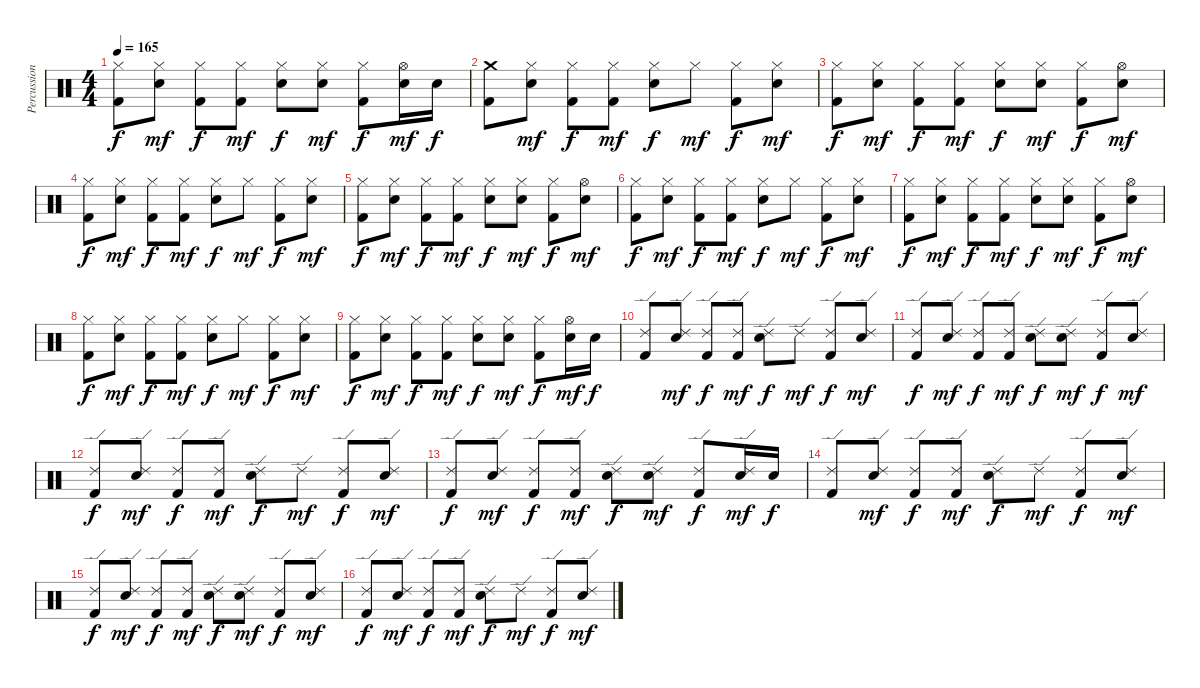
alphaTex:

\track ("Percussion" "Percussion") {instrument percussion}
\staff {score}
\articulation defaults
\ts (4 4)
\tempo 165
\clef neutral
\ks c
("Hi-Hat (closed)" "Kick (hit) 2").8{dy f} ("Hi-Hat (closed)" "Snare (hit) 2").8{dy mf} ("Hi-Hat (closed)" "Kick (hit) 2").8{dy f} ("Hi-Hat (closed)" "Kick (hit) 2").8{dy mf} ("Hi-Hat (closed)" "Snare (hit) 2").8{dy f} ("Hi-Hat (closed)" "Snare (hit) 2").8{dy mf} ("Hi-Hat (closed)" "Kick (hit) 2").8{dy f} ("Hi-Hat (open)" "Snare (hit) 2").16{dy mf} "Snare (hit) 2".16{dy f} |
("Crash medium (hit)" "Kick (hit) 2").8 ("Hi-Hat (closed)" "Snare (hit) 2").8{dy mf} ("Hi-Hat (closed)" "Kick (hit) 2").8{dy f} ("Hi-Hat (closed)" "Kick (hit) 2").8{dy mf} ("Hi-Hat (closed)" "Snare (hit) 2").8{dy f} "Hi-Hat (closed)".8{dy mf} ("Hi-Hat (closed)" "Kick (hit) 2").8{dy f} ("Hi-Hat (closed)" "Snare (hit) 2").8{dy mf} |
("Hi-Hat (closed)" "Kick (hit) 2").8{dy f} ("Hi-Hat (closed)" "Snare (hit) 2").8{dy mf} ("Hi-Hat (closed)" "Kick (hit) 2").8{dy f} ("Hi-Hat (closed)" "Kick (hit) 2").8{dy mf} ("Hi-Hat (closed)" "Snare (hit) 2").8{dy f} ("Hi-Hat (closed)" "Snare (hit) 2").8{dy mf} ("Hi-Hat (closed)" "Kick (hit) 2").8{dy f} ("Hi-Hat (open)" "Snare (hit) 2").8{dy mf} |
("Hi-Hat (closed)" "Kick (hit) 2").8{dy f} ("Hi-Hat (closed)" "Snare (hit) 2").8{dy mf} ("Hi-Hat (closed)" "Kick (hit) 2").8{dy f} ("Hi-Hat (closed)" "Kick (hit) 2").8{dy mf} ("Hi-Hat (closed)" "Snare (hit) 2").8{dy f} "Hi-Hat (closed)".8{dy mf} ("Hi-Hat (closed)" "Kick (hit) 2").8{dy f} ("Hi-Hat (closed)" "Snare (hit) 2").8{dy mf} |
("Hi-Hat (closed)" "Kick (hit) 2").8{dy f} ("Hi-Hat (closed)" "Snare (hit) 2").8{dy mf} ("Hi-Hat (closed)" "Kick (hit) 2").8{dy f} ("Hi-Hat (closed)" "Kick (hit) 2").8{dy mf} ("Hi-Hat (closed)" "Snare (hit) 2").8{dy f} ("Hi-Hat (closed)" "Snare (hit) 2").8{dy mf} ("Hi-Hat (closed)" "Kick (hit) 2").8{dy f} ("Hi-Hat (open)" "Snare (hit) 2").8{dy mf} |
("Hi-Hat (closed)" "Kick (hit) 2").8{dy f} ("Hi-Hat (closed)" "Snare (hit) 2").8{dy mf} ("Hi-Hat (closed)" "Kick (hit) 2").8{dy f} ("Hi-Hat (closed)" "Kick (hit) 2").8{dy mf} ("Hi-Hat (closed)" "Snare (hit) 2").8{dy f} "Hi-Hat (closed)".8{dy mf} ("Hi-Hat (closed)" "Kick (hit) 2").8{dy f} ("Hi-Hat (closed)" "Snare (hit) 2").8{dy mf} |
("Hi-Hat (closed)" "Kick (hit) 2").8{dy f} ("Hi-Hat (closed)" "Snare (hit) 2").8{dy mf} ("Hi-Hat (closed)" "Kick (hit) 2").8{dy f} ("Hi-Hat (closed)" "Kick (hit) 2").8{dy mf} ("Hi-Hat (closed)" "Snare (hit) 2").8{dy f} ("Hi-Hat (closed)" "Snare (hit) 2").8{dy mf} ("Hi-Hat (closed)" "Kick (hit) 2").8{dy f} ("Hi-Hat (open)" "Snare (hit) 2").8{dy mf} |
("Hi-Hat (closed)" "Kick (hit) 2").8{dy f} ("Hi-Hat (closed)" "Snare (hit) 2").8{dy mf} ("Hi-Hat (closed)" "Kick (hit) 2").8{dy f} ("Hi-Hat (closed)" "Kick (hit) 2").8{dy mf} ("Hi-Hat (closed)" "Snare (hit) 2").8{dy f} "Hi-Hat (closed)".8{dy mf} ("Hi-Hat (closed)" "Kick (hit) 2").8{dy f} ("Hi-Hat (closed)" "Snare (hit) 2").8{dy mf} |
("Hi-Hat (closed)" "Kick (hit) 2").8{dy f} ("Hi-Hat (closed)" "Snare (hit) 2").8{dy mf} ("Hi-Hat (closed)" "Kick (hit) 2").8{dy f} ("Hi-Hat (closed)" "Kick (hit) 2").8{dy mf} ("Hi-Hat (closed)" "Snare (hit) 2").8{dy f} ("Hi-Hat (closed)" "Snare (hit) 2").8{dy mf} ("Hi-Hat (closed)" "Kick (hit) 2").8{dy f} ("Hi-Hat (open)" "Snare (hit) 2").16{dy mf} "Snare (hit) 2".16{dy f} |
("Ride (edge) 2" "Kick (hit) 2").8 ("Ride (edge) 2" "Snare (hit) 2").8{dy mf} ("Ride (edge) 2" "Kick (hit) 2").8{dy f} ("Ride (edge) 2" "Kick (hit) 2").8{dy mf} ("Ride (edge) 2" "Snare (hit) 2").8{dy f} "Ride (edge) 2".8{dy mf} ("Ride (edge) 2" "Kick (hit) 2").8{dy f} ("Ride (edge) 2" "Snare (hit) 2").8{dy mf} |
("Ride (edge) 2" "Kick (hit) 2").8{dy f} ("Ride (edge) 2" "Snare (hit) 2").8{dy mf} ("Ride (edge) 2" "Kick (hit) 2").8{dy f} ("Ride (edge) 2" "Kick (hit) 2").8{dy mf} ("Ride (edge) 2" "Snare (hit) 2").8{dy f} ("Ride (edge) 2" "Snare (hit) 2").8{dy mf} ("Ride (edge) 2" "Kick (hit) 2").8{dy f} ("Ride (edge) 2" "Snare (hit) 2").8{dy mf} |
("Ride (edge) 2" "Kick (hit) 2").8{dy f} ("Ride (edge) 2" "Snare (hit) 2").8{dy mf} ("Ride (edge) 2" "Kick (hit) 2").8{dy f} ("Ride (edge) 2" "Kick (hit) 2").8{dy mf} ("Ride (edge) 2" "Snare (hit) 2").8{dy f} "Ride (edge) 2".8{dy mf} ("Ride (edge) 2" "Kick (hit) 2").8{dy f} ("Ride (edge) 2" "Snare (hit) 2").8{dy mf} |
("Ride (edge) 2" "Kick (hit) 2").8{dy f} ("Ride (edge) 2" "Snare (hit) 2").8{dy mf} ("Ride (edge) 2" "Kick (hit) 2").8{dy f} ("Ride (edge) 2" "Kick (hit) 2").8{dy mf} ("Ride (edge) 2" "Snare (hit) 2").8{dy f} ("Ride (edge) 2" "Snare (hit) 2").8{dy mf} ("Ride (edge) 2" "Kick (hit) 2").8{dy f} ("Ride (edge) 2" "Snare (hit) 2").16{dy mf} "Snare (hit) 2".16{dy f} |
("Ride (edge) 2" "Kick (hit) 2").8 ("Ride (edge) 2" "Snare (hit) 2").8{dy mf} ("Ride (edge) 2" "Kick (hit) 2").8{dy f} ("Ride (edge) 2" "Kick (hit) 2").8{dy mf} ("Ride (edge) 2" "Snare (hit) 2").8{dy f} "Ride (edge) 2".8{dy mf} ("Ride (edge) 2" "Kick (hit) 2").8{dy f} ("Ride (edge) 2" "Snare (hit) 2").8{dy mf} |
("Ride (edge) 2" "Kick (hit) 2").8{dy f} ("Ride (edge) 2" "Snare (hit) 2").8{dy mf} ("Ride (edge) 2" "Kick (hit) 2").8{dy f} ("Ride (edge) 2" "Kick (hit) 2").8{dy mf} ("Ride (edge) 2" "Snare (hit) 2").8{dy f} ("Ride (edge) 2" "Snare (hit) 2").8{dy mf} ("Ride (edge) 2" "Kick (hit) 2").8{dy f} ("Ride (edge) 2" "Snare (hit) 2").8{dy mf} |
("Ride (edge) 2" "Kick (hit) 2").8{dy f} ("Ride (edge) 2" "Snare (hit) 2").8{dy mf} ("Ride (edge) 2" "Kick (hit) 2").8{dy f} ("Ride (edge) 2" "Kick (hit) 2").8{dy mf} ("Ride (edge) 2" "Snare (hit) 2").8{dy f} "Ride (edge) 2".8{dy mf} ("Ride (edge) 2" "Kick (hit) 2").8{dy f} ("Ride (edge) 2" "Snare (hit) 2").8{dy mf}
